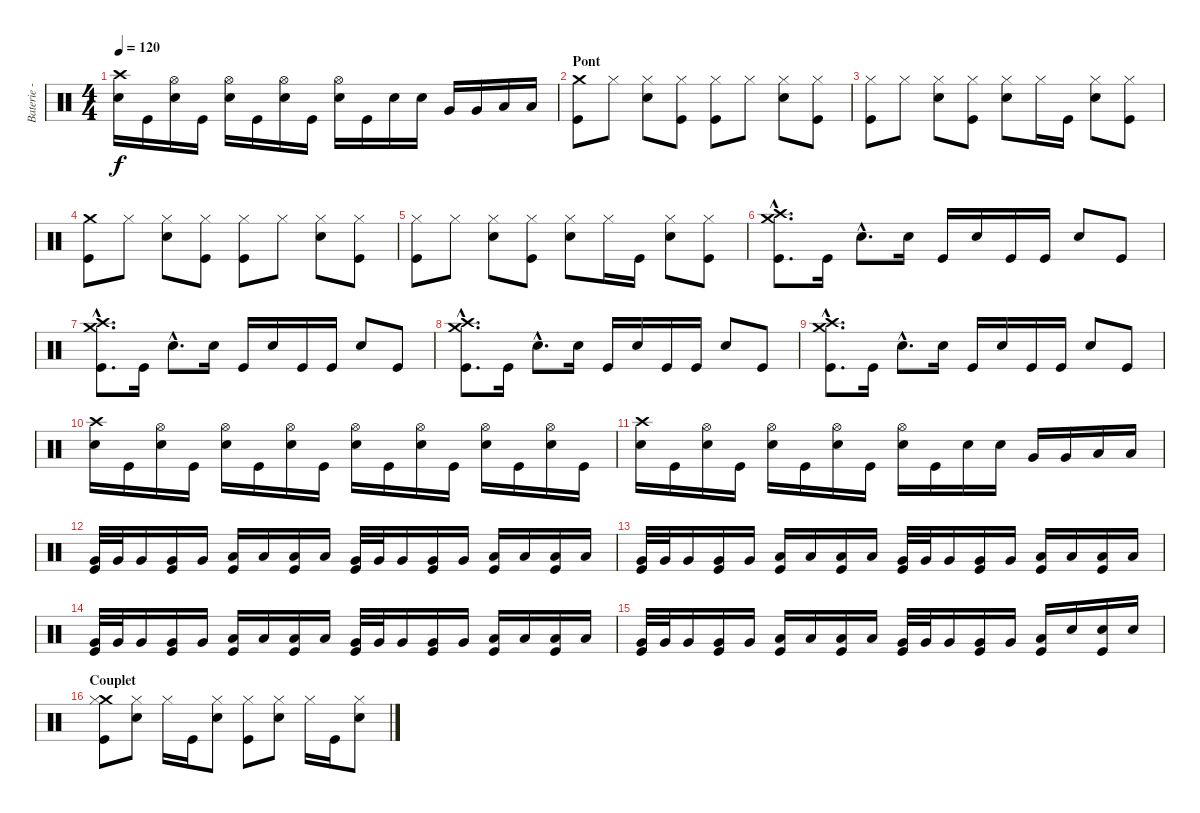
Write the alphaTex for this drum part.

\track ("Baterie - Nounours" "Baterie - ") {instrument percussion}
\staff {score}
\articulation defaults
\ts (4 4)
\tempo 120
\clef neutral
\ks c
("Crash high (hit)" "Electric Snare (hit)").16{dy f} "Kick (hit)".16 ("Hi-Hat (open)" "Electric Snare (hit)").16 "Kick (hit)".16 ("Hi-Hat (open)" "Electric Snare (hit)").16 "Kick (hit)".16 ("Hi-Hat (open)" "Electric Snare (hit)").16 "Kick (hit)".16 ("Hi-Hat (open)" "Electric Snare (hit)").16 "Kick (hit)".16 "Electric Snare (hit)".16 "Electric Snare (hit)".16 "Very Low Tom (hit)".16 "Very Low Tom (hit)".16 "Low Floor Tom (hit)".16 "Low Floor Tom (hit)".16 |
\section ("" "Pont")
("Crash medium (hit)" "Kick (hit)").8 "Hi-Hat (closed)".8 ("Hi-Hat (closed)" "Electric Snare (hit)").8 ("Hi-Hat (closed)" "Kick (hit)").8 ("Hi-Hat (closed)" "Kick (hit)").8 "Hi-Hat (closed)".8 ("Hi-Hat (closed)" "Electric Snare (hit)").8 ("Hi-Hat (closed)" "Kick (hit)").8 |
("Hi-Hat (closed)" "Kick (hit)").8 "Hi-Hat (closed)".8 ("Hi-Hat (closed)" "Electric Snare (hit)").8 ("Hi-Hat (closed)" "Kick (hit)").8 ("Hi-Hat (closed)" "Electric Snare (hit)").8 "Hi-Hat (closed)".16 "Kick (hit)".16 ("Hi-Hat (closed)" "Electric Snare (hit)").8 ("Hi-Hat (closed)" "Kick (hit)").8 |
("Crash medium (hit)" "Kick (hit)").8 "Hi-Hat (closed)".8 ("Hi-Hat (closed)" "Electric Snare (hit)").8 ("Hi-Hat (closed)" "Kick (hit)").8 ("Hi-Hat (closed)" "Kick (hit)").8 "Hi-Hat (closed)".8 ("Hi-Hat (closed)" "Electric Snare (hit)").8 ("Hi-Hat (closed)" "Kick (hit)").8 |
("Hi-Hat (closed)" "Kick (hit)").8 "Hi-Hat (closed)".8 ("Hi-Hat (closed)" "Electric Snare (hit)").8 ("Hi-Hat (closed)" "Kick (hit)").8 ("Hi-Hat (closed)" "Electric Snare (hit)").8 "Hi-Hat (closed)".16 "Kick (hit)".16 ("Hi-Hat (closed)" "Electric Snare (hit)").8 ("Hi-Hat (closed)" "Kick (hit)").8 |
("Crash medium (hit)"{hac} "Crash high (hit)"{hac} "Kick (hit)"{hac}).8{d} "Kick (hit)".16 "Electric Snare (hit)"{hac}.8{d} "Electric Snare (hit)".16 "Kick (hit)".16 "Electric Snare (hit)".16 "Kick (hit)".16 "Kick (hit)".16 "Electric Snare (hit)".8 "Kick (hit)".8 |
("Crash medium (hit)"{hac} "Crash high (hit)"{hac} "Kick (hit)"{hac}).8{d} "Kick (hit)".16 "Electric Snare (hit)"{hac}.8{d} "Electric Snare (hit)".16 "Kick (hit)".16 "Electric Snare (hit)".16 "Kick (hit)".16 "Kick (hit)".16 "Electric Snare (hit)".8 "Kick (hit)".8 |
("Crash medium (hit)"{hac} "Crash high (hit)"{hac} "Kick (hit)"{hac}).8{d} "Kick (hit)".16 "Electric Snare (hit)"{hac}.8{d} "Electric Snare (hit)".16 "Kick (hit)".16 "Electric Snare (hit)".16 "Kick (hit)".16 "Kick (hit)".16 "Electric Snare (hit)".8 "Kick (hit)".8 |
("Crash medium (hit)"{hac} "Crash high (hit)"{hac} "Kick (hit)"{hac}).8{d} "Kick (hit)".16 "Electric Snare (hit)"{hac}.8{d} "Electric Snare (hit)".16 "Kick (hit)".16 "Electric Snare (hit)".16 "Kick (hit)".16 "Kick (hit)".16 "Electric Snare (hit)".8 "Kick (hit)".8 |
("Crash high (hit)" "Electric Snare (hit)").16 "Kick (hit)".16 ("Hi-Hat (open)" "Electric Snare (hit)").16 "Kick (hit)".16 ("Hi-Hat (open)" "Electric Snare (hit)").16 "Kick (hit)".16 ("Hi-Hat (open)" "Electric Snare (hit)").16 "Kick (hit)".16 ("Hi-Hat (open)" "Electric Snare (hit)").16 "Kick (hit)".16 ("Hi-Hat (open)" "Electric Snare (hit)").16 "Kick (hit)".16 ("Hi-Hat (open)" "Electric Snare (hit)").16 "Kick (hit)".16 ("Hi-Hat (open)" "Electric Snare (hit)").16 "Kick (hit)".16 |
("Crash high (hit)" "Electric Snare (hit)").16 "Kick (hit)".16 ("Hi-Hat (open)" "Electric Snare (hit)").16 "Kick (hit)".16 ("Hi-Hat (open)" "Electric Snare (hit)").16 "Kick (hit)".16 ("Hi-Hat (open)" "Electric Snare (hit)").16 "Kick (hit)".16 ("Hi-Hat (open)" "Electric Snare (hit)").16 "Kick (hit)".16 "Electric Snare (hit)".16 "Electric Snare (hit)".16 "Very Low Tom (hit)".16 "Very Low Tom (hit)".16 "Low Floor Tom (hit)".16 "Low Floor Tom (hit)".16 |
("Very Low Tom (hit)" "Kick (hit)").32 "Very Low Tom (hit)".32 "Very Low Tom (hit)".16 ("Very Low Tom (hit)" "Kick (hit)").16 "Very Low Tom (hit)".16 ("Low Floor Tom (hit)" "Kick (hit)").16 "Low Floor Tom (hit)".16 ("Low Floor Tom (hit)" "Kick (hit)").16 "Low Floor Tom (hit)".16 ("Very Low Tom (hit)" "Kick (hit)").32 "Very Low Tom (hit)".32 "Very Low Tom (hit)".16 ("Very Low Tom (hit)" "Kick (hit)").16 "Very Low Tom (hit)".16 ("Low Floor Tom (hit)" "Kick (hit)").16 "Low Floor Tom (hit)".16 ("Low Floor Tom (hit)" "Kick (hit)").16 "Low Floor Tom (hit)".16 |
("Very Low Tom (hit)" "Kick (hit)").32 "Very Low Tom (hit)".32 "Very Low Tom (hit)".16 ("Very Low Tom (hit)" "Kick (hit)").16 "Very Low Tom (hit)".16 ("Low Floor Tom (hit)" "Kick (hit)").16 "Low Floor Tom (hit)".16 ("Low Floor Tom (hit)" "Kick (hit)").16 "Low Floor Tom (hit)".16 ("Very Low Tom (hit)" "Kick (hit)").32 "Very Low Tom (hit)".32 "Very Low Tom (hit)".16 ("Very Low Tom (hit)" "Kick (hit)").16 "Very Low Tom (hit)".16 ("Low Floor Tom (hit)" "Kick (hit)").16 "Low Floor Tom (hit)".16 ("Low Floor Tom (hit)" "Kick (hit)").16 "Low Floor Tom (hit)".16 |
("Very Low Tom (hit)" "Kick (hit)").32 "Very Low Tom (hit)".32 "Very Low Tom (hit)".16 ("Very Low Tom (hit)" "Kick (hit)").16 "Very Low Tom (hit)".16 ("Low Floor Tom (hit)" "Kick (hit)").16 "Low Floor Tom (hit)".16 ("Low Floor Tom (hit)" "Kick (hit)").16 "Low Floor Tom (hit)".16 ("Very Low Tom (hit)" "Kick (hit)").32 "Very Low Tom (hit)".32 "Very Low Tom (hit)".16 ("Very Low Tom (hit)" "Kick (hit)").16 "Very Low Tom (hit)".16 ("Low Floor Tom (hit)" "Kick (hit)").16 "Low Floor Tom (hit)".16 ("Low Floor Tom (hit)" "Kick (hit)").16 "Low Floor Tom (hit)".16 |
("Very Low Tom (hit)" "Kick (hit)").32 "Very Low Tom (hit)".32 "Very Low Tom (hit)".16 ("Very Low Tom (hit)" "Kick (hit)").16 "Very Low Tom (hit)".16 ("Low Floor Tom (hit)" "Kick (hit)").16 "Low Floor Tom (hit)".16 ("Low Floor Tom (hit)" "Kick (hit)").16 "Low Floor Tom (hit)".16 ("Very Low Tom (hit)" "Kick (hit)").32 "Very Low Tom (hit)".32 "Very Low Tom (hit)".16 ("Very Low Tom (hit)" "Kick (hit)").16 "Very Low Tom (hit)".16 ("Low Floor Tom (hit)" "Kick (hit)").16 "Electric Snare (hit)".16 ("Electric Snare (hit)" "Kick (hit)").16 "Electric Snare (hit)".16 |
\section ("" "Couplet")
("Crash medium (hit)" "Hi-Hat (closed)" "Kick (hit)").8 ("Hi-Hat (closed)" "Electric Snare (hit)").8 "Hi-Hat (closed)".16 "Kick (hit)".16 ("Hi-Hat (closed)" "Electric Snare (hit)").8 ("Hi-Hat (closed)" "Kick (hit)").8 ("Hi-Hat (closed)" "Electric Snare (hit)").8 "Hi-Hat (closed)".16 "Kick (hit)".16 ("Hi-Hat (closed)" "Electric Snare (hit)").8
